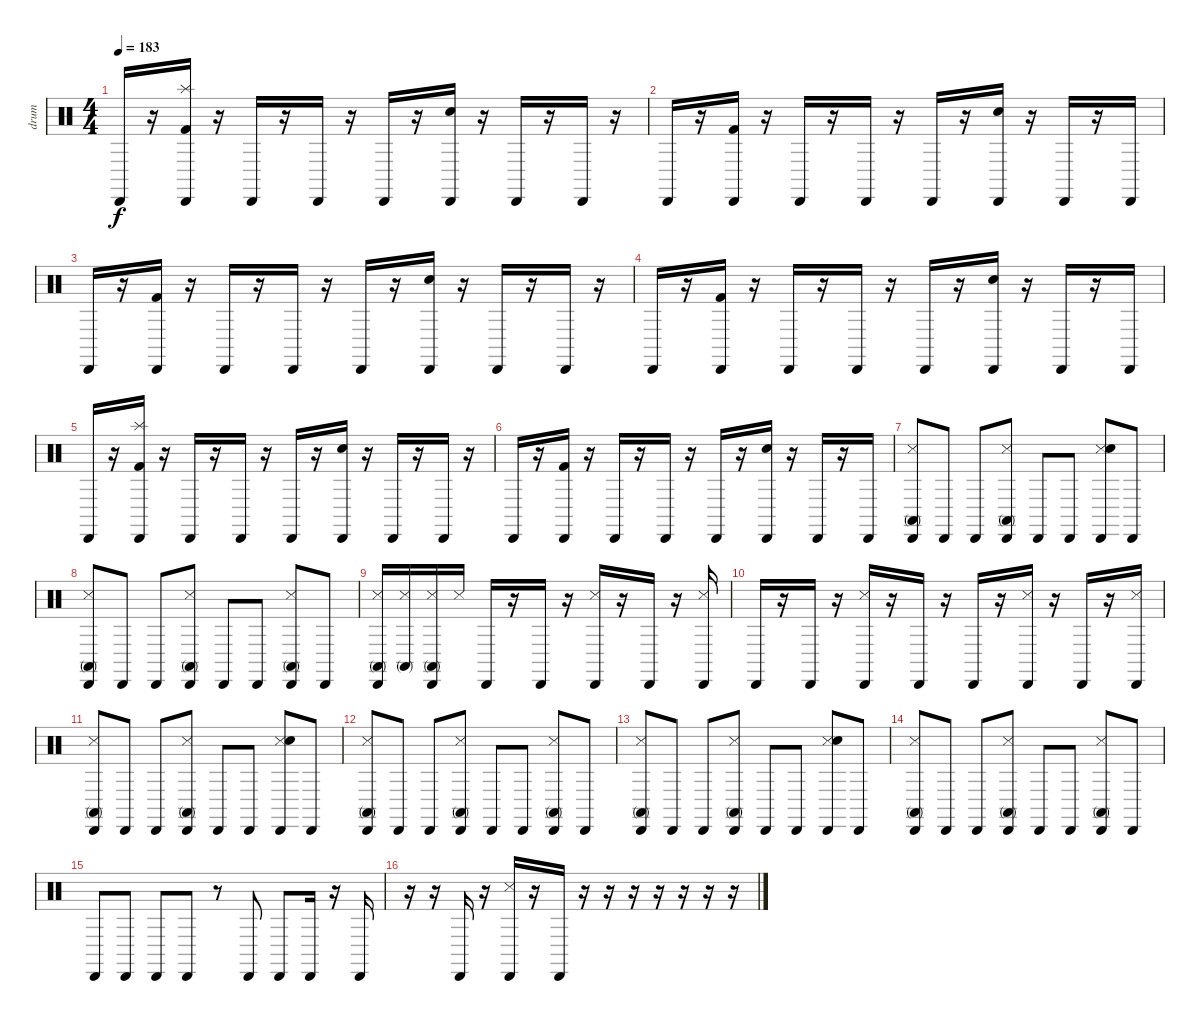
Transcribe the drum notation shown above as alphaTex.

\track ("drum" "drum") {instrument percussion}
\staff {score}
\articulation defaults
\ts (4 4)
\tempo 183
\clef neutral
\ks c "Cabasa (hit)".16{dy f}
r.16 ("Cabasa (hit)" "Kick (hit) 2" "Splash (hit)").16 r.16 "Cabasa (hit)".16 r.16 "Cabasa (hit)".16 r.16 "Cabasa (hit)".16 r.16 ("Cabasa (hit)" "Snare (hit) 2").16 r.16 "Cabasa (hit)".16 r.16 "Cabasa (hit)".16 r.16 |
"Cabasa (hit)".16 r.16 ("Cabasa (hit)" "Kick (hit) 2").16 r.16 "Cabasa (hit)".16 r.16 "Cabasa (hit)".16 r.16 "Cabasa (hit)".16 r.16 ("Cabasa (hit)" "Snare (hit) 2").16 r.16 "Cabasa (hit)".16 r.16 "Cabasa (hit)".16 |
"Cabasa (hit)".16 r.16 ("Cabasa (hit)" "Kick (hit) 2").16 r.16 "Cabasa (hit)".16 r.16 "Cabasa (hit)".16 r.16 "Cabasa (hit)".16 r.16 ("Cabasa (hit)" "Snare (hit) 2").16 r.16 "Cabasa (hit)".16 r.16 "Cabasa (hit)".16 r.16 |
"Cabasa (hit)".16 r.16 ("Cabasa (hit)" "Kick (hit) 2").16 r.16 "Cabasa (hit)".16 r.16 "Cabasa (hit)".16 r.16 "Cabasa (hit)".16 r.16 ("Cabasa (hit)" "Snare (hit) 2").16 r.16 "Cabasa (hit)".16 r.16 "Cabasa (hit)".16 |
"Cabasa (hit)".16 r.16 ("Cabasa (hit)" "Kick (hit) 2" "Splash (hit)").16 r.16 "Cabasa (hit)".16 r.16 "Cabasa (hit)".16 r.16 "Cabasa (hit)".16 r.16 ("Cabasa (hit)" "Snare (hit) 2").16 r.16 "Cabasa (hit)".16 r.16 "Cabasa (hit)".16 r.16 |
"Cabasa (hit)".16 r.16 ("Cabasa (hit)" "Kick (hit) 2").16 r.16 "Cabasa (hit)".16 r.16 "Cabasa (hit)".16 r.16 "Cabasa (hit)".16 r.16 ("Cabasa (hit)" "Snare (hit) 2").16 r.16 "Cabasa (hit)".16 r.16 "Cabasa (hit)".16 |
("Cabasa (hit)" "Conga high (mute)" "Snare (side stick) 3").8 "Cabasa (hit)".8 "Cabasa (hit)".8 ("Cabasa (hit)" "Snare (side stick) 3" "Conga high (mute)").8 "Cabasa (hit)".8 "Cabasa (hit)".8 ("Cabasa (hit)" "Snare (side stick) 3" "Snare (hit)").8 "Cabasa (hit)".8 |
("Cabasa (hit)" "Snare (side stick) 3" "Conga high (mute)").8 "Cabasa (hit)".8 "Cabasa (hit)".8 ("Cabasa (hit)" "Conga high (mute)" "Snare (side stick) 3").8 "Cabasa (hit)".8 "Cabasa (hit)".8 ("Cabasa (hit)" "Conga high (mute)" "Snare (side stick) 3").8 "Cabasa (hit)".8 |
("Cabasa (hit)" "Conga high (mute)" "Snare (side stick) 3").16 ("Conga high (mute)" "Snare (side stick) 3").16 ("Cabasa (hit)" "Conga high (mute)" "Snare (side stick) 3").16 "Snare (side stick) 3".16 "Cabasa (hit)".16 r.16 "Cabasa (hit)".16 r.16 ("Cabasa (hit)" "Snare (side stick) 3").16 r.16 "Cabasa (hit)".16 r.16 ("Cabasa (hit)" "Snare (side stick) 3").16 |
"Cabasa (hit)".16 r.16 "Cabasa (hit)".16 r.16 ("Cabasa (hit)" "Snare (side stick) 3").16 r.16 "Cabasa (hit)".16 r.16 "Cabasa (hit)".16 r.16 ("Cabasa (hit)" "Snare (side stick) 3").16 r.16 "Cabasa (hit)".16 r.16 ("Cabasa (hit)" "Snare (side stick) 3").16 |
("Cabasa (hit)" "Conga high (mute)" "Snare (side stick) 3").8 "Cabasa (hit)".8 "Cabasa (hit)".8 ("Cabasa (hit)" "Snare (side stick) 3" "Conga high (mute)").8 "Cabasa (hit)".8 "Cabasa (hit)".8 ("Cabasa (hit)" "Snare (side stick) 3" "Snare (hit)").8 "Cabasa (hit)".8 |
("Cabasa (hit)" "Snare (side stick) 3" "Conga high (mute)").8 "Cabasa (hit)".8 "Cabasa (hit)".8 ("Cabasa (hit)" "Conga high (mute)" "Snare (side stick) 3").8 "Cabasa (hit)".8 "Cabasa (hit)".8 ("Cabasa (hit)" "Conga high (mute)" "Snare (side stick) 3").8 "Cabasa (hit)".8 |
("Cabasa (hit)" "Conga high (mute)" "Snare (side stick) 3").8 "Cabasa (hit)".8 "Cabasa (hit)".8 ("Cabasa (hit)" "Snare (side stick) 3" "Conga high (mute)").8 "Cabasa (hit)".8 "Cabasa (hit)".8 ("Cabasa (hit)" "Snare (side stick) 3" "Snare (hit)").8 "Cabasa (hit)".8 |
("Cabasa (hit)" "Snare (side stick) 3" "Conga high (mute)").8 "Cabasa (hit)".8 "Cabasa (hit)".8 ("Cabasa (hit)" "Conga high (mute)" "Snare (side stick) 3").8 "Cabasa (hit)".8 "Cabasa (hit)".8 ("Cabasa (hit)" "Conga high (mute)" "Snare (side stick) 3").8 "Cabasa (hit)".8 |
"Cabasa (hit)".8 "Cabasa (hit)".8 "Cabasa (hit)".8 "Cabasa (hit)".8 r.8 "Cabasa (hit)".8 "Cabasa (hit)".8 "Cabasa (hit)".16 r.16 "Cabasa (hit)".16 |
r.16 r.16 "Cabasa (hit)".16 r.16 ("Cabasa (hit)" "Snare (side stick) 3").16 r.16 "Cabasa (hit)".16 r.16 r.16 r.16 r.16 r.16 r.16 r.16
